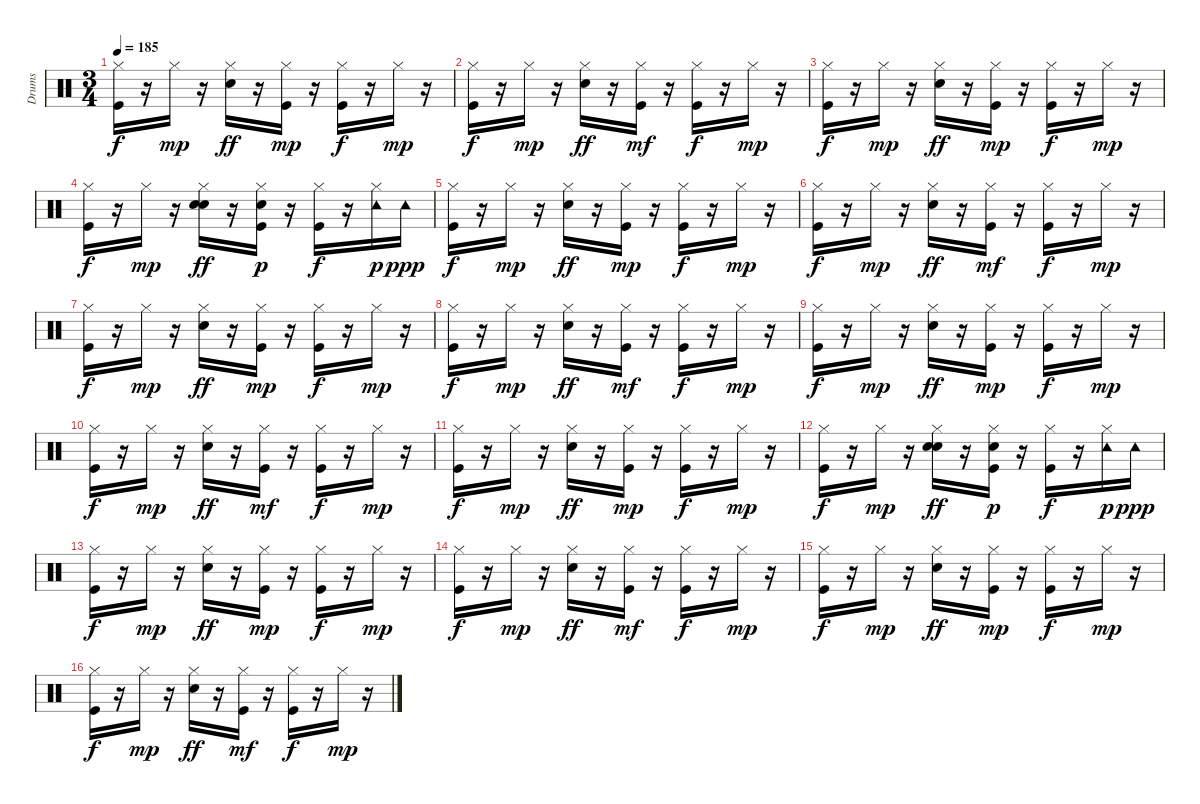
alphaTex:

\track ("Drums " "Drums ") {instrument percussion}
\staff {score}
\articulation defaults
\ts (3 4)
\tempo 185
\clef neutral
\ks c
("Kick (hit)" "Hi-Hat (closed)").16{dy f} r.16 "Hi-Hat (closed)".16{dy mp} r.16 ("Snare (hit) 2" "Hi-Hat (closed)").16{dy ff} r.16 ("Kick (hit)" "Hi-Hat (closed)").16{dy mp} r.16 ("Kick (hit)" "Hi-Hat (closed)").16{dy f} r.16 "Hi-Hat (closed)".16{dy mp} r.16 |
("Kick (hit)" "Hi-Hat (closed)").16{dy f} r.16 "Hi-Hat (closed)".16{dy mp} r.16 ("Snare (hit) 2" "Hi-Hat (closed)").16{dy ff} r.16 ("Kick (hit)" "Hi-Hat (closed)").16{dy mf} r.16 ("Kick (hit)" "Hi-Hat (closed)").16{dy f} r.16 "Hi-Hat (closed)".16{dy mp} r.16 |
("Kick (hit)" "Hi-Hat (closed)").16{dy f} r.16 "Hi-Hat (closed)".16{dy mp} r.16 ("Snare (hit) 2" "Hi-Hat (closed)").16{dy ff} r.16 ("Kick (hit)" "Hi-Hat (closed)").16{dy mp} r.16 ("Kick (hit)" "Hi-Hat (closed)").16{dy f} r.16 "Hi-Hat (closed)".16{dy mp} r.16 |
("Kick (hit)" "Hi-Hat (closed)").16{dy f} r.16 "Hi-Hat (closed)".16{dy mp} r.16 ("Snare (hit) 2" "Hi-Hat (closed)" "Hand Clap (hit)").16{dy ff} r.16 ("Kick (hit)" "Hi-Hat (closed)" "Hand Clap (hit)").16{dy p} r.16 ("Kick (hit)" "Hi-Hat (closed)").16{dy f} r.16 ("Hi-Hat (closed)" "Tambourine (hit)").16{dy p} "Tambourine (hit)".16{dy ppp} |
("Kick (hit)" "Hi-Hat (closed)").16{dy f} r.16 "Hi-Hat (closed)".16{dy mp} r.16 ("Snare (hit) 2" "Hi-Hat (closed)").16{dy ff} r.16 ("Kick (hit)" "Hi-Hat (closed)").16{dy mp} r.16 ("Kick (hit)" "Hi-Hat (closed)").16{dy f} r.16 "Hi-Hat (closed)".16{dy mp} r.16 |
("Kick (hit)" "Hi-Hat (closed)").16{dy f} r.16 "Hi-Hat (closed)".16{dy mp} r.16 ("Snare (hit) 2" "Hi-Hat (closed)").16{dy ff} r.16 ("Kick (hit)" "Hi-Hat (closed)").16{dy mf} r.16 ("Kick (hit)" "Hi-Hat (closed)").16{dy f} r.16 "Hi-Hat (closed)".16{dy mp} r.16 |
("Kick (hit)" "Hi-Hat (closed)").16{dy f} r.16 "Hi-Hat (closed)".16{dy mp} r.16 ("Snare (hit) 2" "Hi-Hat (closed)").16{dy ff} r.16 ("Kick (hit)" "Hi-Hat (closed)").16{dy mp} r.16 ("Kick (hit)" "Hi-Hat (closed)").16{dy f} r.16 "Hi-Hat (closed)".16{dy mp} r.16 |
("Kick (hit)" "Hi-Hat (closed)").16{dy f} r.16 "Hi-Hat (closed)".16{dy mp} r.16 ("Snare (hit) 2" "Hi-Hat (closed)").16{dy ff} r.16 ("Kick (hit)" "Hi-Hat (closed)").16{dy mf} r.16 ("Kick (hit)" "Hi-Hat (closed)").16{dy f} r.16 "Hi-Hat (closed)".16{dy mp} r.16 |
("Kick (hit)" "Hi-Hat (closed)").16{dy f} r.16 "Hi-Hat (closed)".16{dy mp} r.16 ("Snare (hit) 2" "Hi-Hat (closed)").16{dy ff} r.16 ("Kick (hit)" "Hi-Hat (closed)").16{dy mp} r.16 ("Kick (hit)" "Hi-Hat (closed)").16{dy f} r.16 "Hi-Hat (closed)".16{dy mp} r.16 |
("Kick (hit)" "Hi-Hat (closed)").16{dy f} r.16 "Hi-Hat (closed)".16{dy mp} r.16 ("Snare (hit) 2" "Hi-Hat (closed)").16{dy ff} r.16 ("Kick (hit)" "Hi-Hat (closed)").16{dy mf} r.16 ("Kick (hit)" "Hi-Hat (closed)").16{dy f} r.16 "Hi-Hat (closed)".16{dy mp} r.16 |
("Kick (hit)" "Hi-Hat (closed)").16{dy f} r.16 "Hi-Hat (closed)".16{dy mp} r.16 ("Snare (hit) 2" "Hi-Hat (closed)").16{dy ff} r.16 ("Kick (hit)" "Hi-Hat (closed)").16{dy mp} r.16 ("Kick (hit)" "Hi-Hat (closed)").16{dy f} r.16 "Hi-Hat (closed)".16{dy mp} r.16 |
("Kick (hit)" "Hi-Hat (closed)").16{dy f} r.16 "Hi-Hat (closed)".16{dy mp} r.16 ("Snare (hit) 2" "Hi-Hat (closed)" "Hand Clap (hit)").16{dy ff} r.16 ("Kick (hit)" "Hi-Hat (closed)" "Hand Clap (hit)").16{dy p} r.16 ("Kick (hit)" "Hi-Hat (closed)").16{dy f} r.16 ("Hi-Hat (closed)" "Tambourine (hit)").16{dy p} "Tambourine (hit)".16{dy ppp} |
("Kick (hit)" "Hi-Hat (closed)").16{dy f} r.16 "Hi-Hat (closed)".16{dy mp} r.16 ("Snare (hit) 2" "Hi-Hat (closed)").16{dy ff} r.16 ("Kick (hit)" "Hi-Hat (closed)").16{dy mp} r.16 ("Kick (hit)" "Hi-Hat (closed)").16{dy f} r.16 "Hi-Hat (closed)".16{dy mp} r.16 |
("Kick (hit)" "Hi-Hat (closed)").16{dy f} r.16 "Hi-Hat (closed)".16{dy mp} r.16 ("Snare (hit) 2" "Hi-Hat (closed)").16{dy ff} r.16 ("Kick (hit)" "Hi-Hat (closed)").16{dy mf} r.16 ("Kick (hit)" "Hi-Hat (closed)").16{dy f} r.16 "Hi-Hat (closed)".16{dy mp} r.16 |
("Kick (hit)" "Hi-Hat (closed)").16{dy f} r.16 "Hi-Hat (closed)".16{dy mp} r.16 ("Snare (hit) 2" "Hi-Hat (closed)").16{dy ff} r.16 ("Kick (hit)" "Hi-Hat (closed)").16{dy mp} r.16 ("Kick (hit)" "Hi-Hat (closed)").16{dy f} r.16 "Hi-Hat (closed)".16{dy mp} r.16 |
("Kick (hit)" "Hi-Hat (closed)").16{dy f} r.16 "Hi-Hat (closed)".16{dy mp} r.16 ("Snare (hit) 2" "Hi-Hat (closed)").16{dy ff} r.16 ("Kick (hit)" "Hi-Hat (closed)").16{dy mf} r.16 ("Kick (hit)" "Hi-Hat (closed)").16{dy f} r.16 "Hi-Hat (closed)".16{dy mp} r.16
